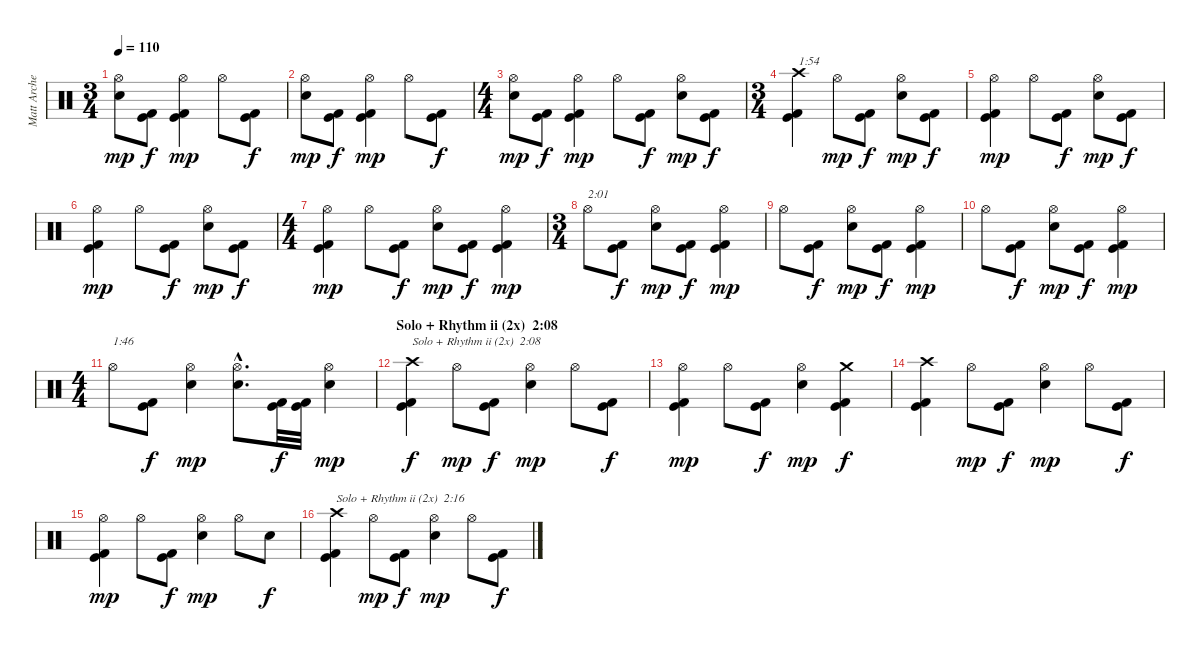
\track ("Matt Archer" "Matt Arche") {instrument percussion}
\staff {score}
\articulation defaults
\ts (3 4)
\tempo 110
\clef neutral
\ks c
("Electric Snare (hit)" "Hi-Hat (open)").8{dy mp} ("Kick (hit)" "Kick (hit) 2").8{dy f} ("Kick (hit)" "Kick (hit) 2" "Hi-Hat (open)").4{dy mp} "Hi-Hat (open)".8 ("Kick (hit)" "Kick (hit) 2").8{dy f} |
("Electric Snare (hit)" "Hi-Hat (open)").8{dy mp} ("Kick (hit)" "Kick (hit) 2").8{dy f} ("Kick (hit)" "Kick (hit) 2" "Hi-Hat (open)").4{dy mp} "Hi-Hat (open)".8 ("Kick (hit)" "Kick (hit) 2").8{dy f} |
\ts (4 4)
("Electric Snare (hit)" "Hi-Hat (open)").8{dy mp} ("Kick (hit)" "Kick (hit) 2").8{dy f} ("Kick (hit)" "Kick (hit) 2" "Hi-Hat (open)").4{dy mp} "Hi-Hat (open)".8 ("Kick (hit)" "Kick (hit) 2").8{dy f} ("Electric Snare (hit)" "Hi-Hat (open)").8{dy mp} ("Kick (hit)" "Kick (hit) 2").8{dy f} |
\ts (3 4)
("Kick (hit)" "Kick (hit) 2" "Crash high (hit)").4{txt "1:54"} "Hi-Hat (open)".8{dy mp} ("Kick (hit)" "Kick (hit) 2").8{dy f} ("Electric Snare (hit)" "Hi-Hat (open)").8{dy mp} ("Kick (hit)" "Kick (hit) 2").8{dy f} |
("Kick (hit)" "Kick (hit) 2" "Hi-Hat (open)").4{dy mp} "Hi-Hat (open)".8 ("Kick (hit)" "Kick (hit) 2").8{dy f} ("Electric Snare (hit)" "Hi-Hat (open)").8{dy mp} ("Kick (hit)" "Kick (hit) 2").8{dy f} |
("Kick (hit)" "Kick (hit) 2" "Hi-Hat (open)").4{dy mp} "Hi-Hat (open)".8 ("Kick (hit)" "Kick (hit) 2").8{dy f} ("Electric Snare (hit)" "Hi-Hat (open)").8{dy mp} ("Kick (hit)" "Kick (hit) 2").8{dy f} |
\ts (4 4)
("Kick (hit)" "Kick (hit) 2" "Hi-Hat (open)").4{dy mp} "Hi-Hat (open)".8 ("Kick (hit)" "Kick (hit) 2").8{dy f} ("Electric Snare (hit)" "Hi-Hat (open)").8{dy mp} ("Kick (hit)" "Kick (hit) 2").8{dy f} ("Kick (hit)" "Kick (hit) 2" "Hi-Hat (open)").4{dy mp} |
\ts (3 4)
"Hi-Hat (open)".8{txt "2:01"} ("Kick (hit)" "Kick (hit) 2").8{dy f} ("Electric Snare (hit)" "Hi-Hat (open)").8{dy mp} ("Kick (hit)" "Kick (hit) 2").8{dy f} ("Kick (hit)" "Kick (hit) 2" "Hi-Hat (open)").4{dy mp} |
"Hi-Hat (open)".8 ("Kick (hit)" "Kick (hit) 2").8{dy f} ("Electric Snare (hit)" "Hi-Hat (open)").8{dy mp} ("Kick (hit)" "Kick (hit) 2").8{dy f} ("Kick (hit)" "Kick (hit) 2" "Hi-Hat (open)").4{dy mp} |
"Hi-Hat (open)".8 ("Kick (hit)" "Kick (hit) 2").8{dy f} ("Electric Snare (hit)" "Hi-Hat (open)").8{dy mp} ("Kick (hit)" "Kick (hit) 2").8{dy f} ("Kick (hit)" "Kick (hit) 2" "Hi-Hat (open)").4{dy mp} |
\ts (4 4)
"Hi-Hat (open)".8{txt "1:46"} ("Kick (hit)" "Kick (hit) 2").8{dy f} ("Electric Snare (hit)" "Hi-Hat (open)").4{dy mp} ("Electric Snare (hit)"{hac} "Hi-Hat (open)"{hac}).8{d} ("Kick (hit)" "Kick (hit) 2").32{dy f} ("Kick (hit)" "Kick (hit) 2").32 ("Electric Snare (hit)" "Hi-Hat (open)").4{dy mp} |
\section ("" "Solo + Rhythm ii (2x)  2:08")
("Kick (hit)" "Kick (hit) 2" "Crash high (hit)").4{txt "Solo + Rhythm ii (2x)  2:08" dy f} "Hi-Hat (open)".8{dy mp} ("Kick (hit)" "Kick (hit) 2").8{dy f} ("Electric Snare (hit)" "Hi-Hat (open)").4{dy mp} "Hi-Hat (open)".8 ("Kick (hit)" "Kick (hit) 2").8{dy f} |
("Kick (hit)" "Kick (hit) 2" "Hi-Hat (open)").4{dy mp} "Hi-Hat (open)".8 ("Kick (hit)" "Kick (hit) 2").8{dy f} ("Electric Snare (hit)" "Hi-Hat (open)").4{dy mp} ("Kick (hit)" "Kick (hit) 2" "Crash medium (hit)").4{dy f} |
("Kick (hit)" "Kick (hit) 2" "Crash high (hit)").4 "Hi-Hat (open)".8{dy mp} ("Kick (hit)" "Kick (hit) 2").8{dy f} ("Electric Snare (hit)" "Hi-Hat (open)").4{dy mp} "Hi-Hat (open)".8 ("Kick (hit)" "Kick (hit) 2").8{dy f} |
("Kick (hit)" "Kick (hit) 2" "Hi-Hat (open)").4{dy mp} "Hi-Hat (open)".8 ("Kick (hit)" "Kick (hit) 2").8{dy f} ("Electric Snare (hit)" "Hi-Hat (open)").4{dy mp} "Hi-Hat (open)".8 "Electric Snare (hit)".8{dy f} |
("Kick (hit)" "Kick (hit) 2" "Crash high (hit)").4{txt "Solo + Rhythm ii (2x)  2:16"} "Hi-Hat (open)".8{dy mp} ("Kick (hit)" "Kick (hit) 2").8{dy f} ("Electric Snare (hit)" "Hi-Hat (open)").4{dy mp} "Hi-Hat (open)".8 ("Kick (hit)" "Kick (hit) 2").8{dy f}
